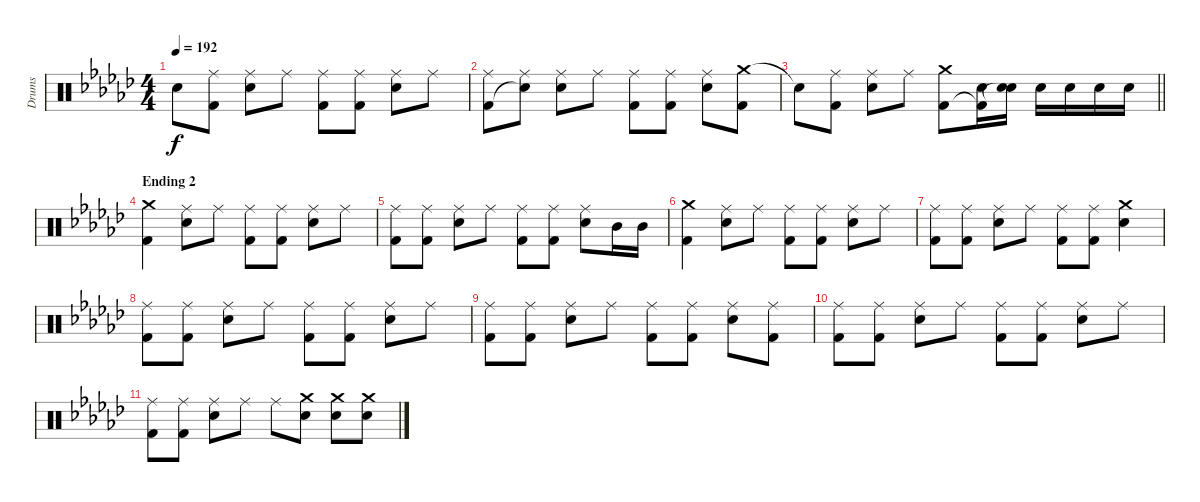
\track ("Drums" "Drums") {instrument percussion}
\staff {score}
\articulation defaults
\ts (4 4)
\tempo 192
\clef neutral
\ks ebminor "Snare (hit)"{t}.8{dy f}
("Ride (middle)" "Kick (hit) 2").8 ("Ride (middle)" "Electric Snare (hit)").8 "Ride (middle)".8 ("Ride (middle)" "Kick (hit) 2").8 ("Ride (middle)" "Kick (hit) 2").8 ("Ride (middle)" "Electric Snare (hit)").8 "Ride (middle)".8 |
("Ride (middle)" "Kick (hit) 2").8 ("Ride (middle)" "Snare (hit)"{t}).8 ("Ride (middle)" "Electric Snare (hit)").8 "Ride (middle)".8 ("Ride (middle)" "Kick (hit) 2").8 ("Ride (middle)" "Kick (hit) 2").8 ("Ride (middle)" "Electric Snare (hit)").8 ("Crash medium (hit)" "Kick (hit) 2").8 |
\barLineRight lightlight "Snare (hit)"{t}.8
("Ride (middle)" "Kick (hit) 2").8 ("Ride (middle)" "Electric Snare (hit)").8 "Ride (middle)".8 ("Crash medium (hit)" "Kick (hit) 2").8 ("Electric Snare (hit)" "Kick (hit) 2"{t}).16 ("Electric Snare (hit)" "Snare (hit)"{t}).16 "Electric Snare (hit)".16 "Electric Snare (hit)".16 "Electric Snare (hit)".16 "Electric Snare (hit)".16 |
\section ("" "Ending 2")
("Crash medium (hit)" "Kick (hit) 2").4 ("Ride (middle)" "Electric Snare (hit)").8 "Ride (middle)".8 ("Ride (middle)" "Kick (hit) 2").8 ("Ride (middle)" "Kick (hit) 2").8 ("Ride (middle)" "Electric Snare (hit)").8 "Ride (middle)".8 |
("Ride (middle)" "Kick (hit) 2").8 ("Ride (middle)" "Kick (hit) 2").8 ("Ride (middle)" "Electric Snare (hit)").8 "Ride (middle)".8 ("Ride (middle)" "Kick (hit) 2").8 ("Ride (middle)" "Kick (hit) 2").8 ("Ride (middle)" "Electric Snare (hit)").8 "Mid Tom (hit)".16 "Mid Tom (hit)".16 |
("Crash medium (hit)" "Kick (hit) 2").4 ("Ride (middle)" "Electric Snare (hit)").8 "Ride (middle)".8 ("Ride (middle)" "Kick (hit) 2").8 ("Ride (middle)" "Kick (hit) 2").8 ("Ride (middle)" "Electric Snare (hit)").8 "Ride (middle)".8 |
("Ride (middle)" "Kick (hit) 2").8 ("Ride (middle)" "Kick (hit) 2").8 ("Ride (middle)" "Electric Snare (hit)").8 "Ride (middle)".8 ("Ride (middle)" "Kick (hit) 2").8 ("Ride (middle)" "Kick (hit) 2").8 ("Crash medium (hit)" "Electric Snare (hit)").4 |
("Ride (middle)" "Kick (hit) 2").8 ("Ride (middle)" "Kick (hit) 2").8 ("Ride (middle)" "Electric Snare (hit)").8 "Ride (middle)".8 ("Ride (middle)" "Kick (hit) 2").8 ("Ride (middle)" "Kick (hit) 2").8 ("Ride (middle)" "Electric Snare (hit)").8 "Ride (middle)".8 |
("Ride (middle)" "Kick (hit) 2").8 ("Ride (middle)" "Kick (hit) 2").8 ("Ride (middle)" "Electric Snare (hit)").8 "Ride (middle)".8 ("Ride (middle)" "Kick (hit) 2").8 ("Ride (middle)" "Kick (hit) 2").8 ("Ride (middle)" "Electric Snare (hit)").8 ("Ride (middle)" "Kick (hit) 2").8 |
("Ride (middle)" "Kick (hit) 2").8 ("Ride (middle)" "Kick (hit) 2").8 ("Ride (middle)" "Electric Snare (hit)").8 "Ride (middle)".8 ("Ride (middle)" "Kick (hit) 2").8 ("Ride (middle)" "Kick (hit) 2").8 ("Ride (middle)" "Electric Snare (hit)").8 "Ride (middle)".8 |
("Ride (middle)" "Kick (hit) 2").8 ("Ride (middle)" "Kick (hit) 2").8 ("Ride (middle)" "Electric Snare (hit)").8 "Ride (middle)".8 "Ride (middle)".8 ("Crash medium (hit)" "Electric Snare (hit)").8 ("Crash medium (hit)" "Electric Snare (hit)").8 ("Crash medium (hit)" "Electric Snare (hit)").8
